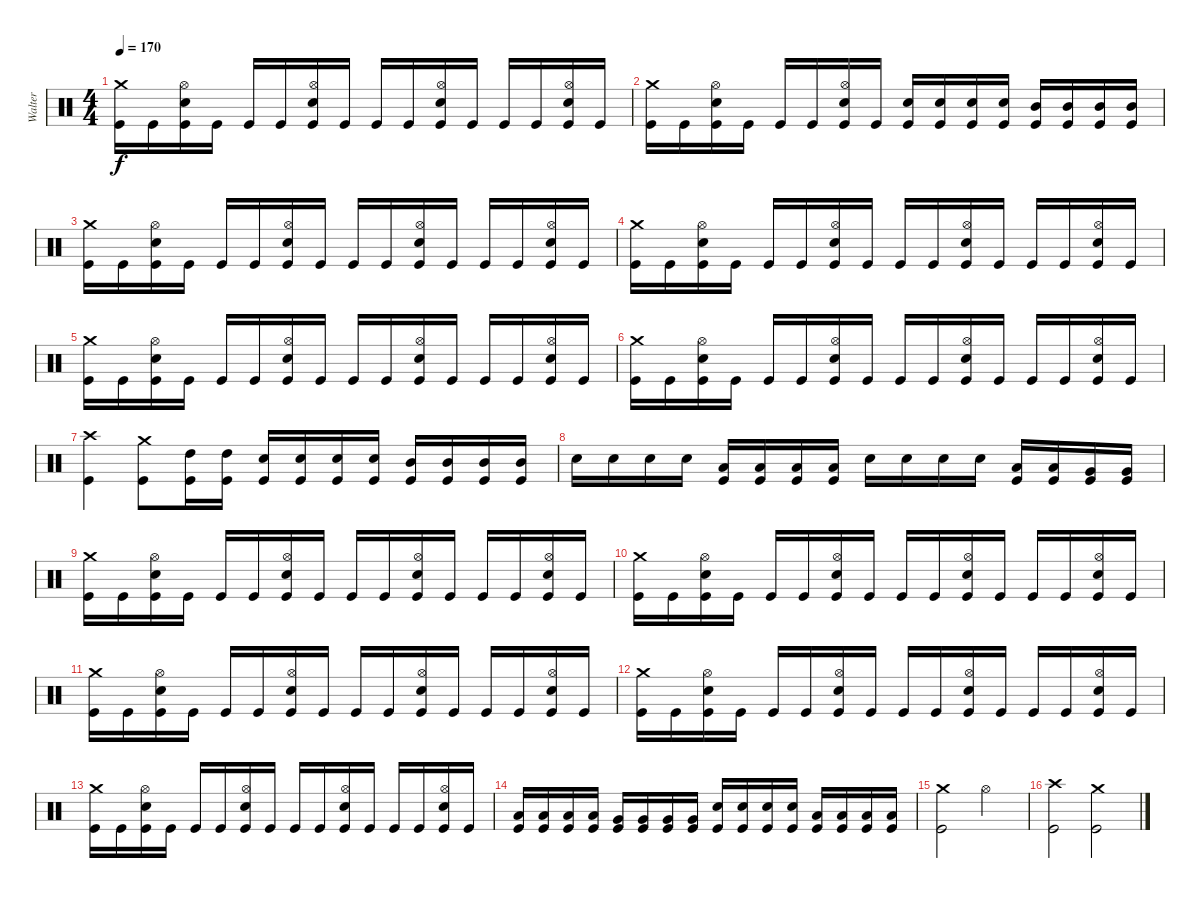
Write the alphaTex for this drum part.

\track ("Walter" "Walter") {instrument percussion}
\staff {score}
\articulation defaults
\ts (4 4)
\tempo 170
\clef neutral
\ks c
("Crash medium (hit)" "Kick (hit)").16{dy f} "Kick (hit)".16 ("Hi-Hat (open)" "Electric Snare (hit)" "Kick (hit)").16 "Kick (hit)".16 "Kick (hit)".16 "Kick (hit)".16 ("Hi-Hat (open)" "Electric Snare (hit)" "Kick (hit)").16 "Kick (hit)".16 "Kick (hit)".16 "Kick (hit)".16 ("Hi-Hat (open)" "Electric Snare (hit)" "Kick (hit)").16 "Kick (hit)".16 "Kick (hit)".16 "Kick (hit)".16 ("Hi-Hat (open)" "Electric Snare (hit)" "Kick (hit)").16 "Kick (hit)".16 |
("Crash medium (hit)" "Kick (hit)").16 "Kick (hit)".16 ("Hi-Hat (open)" "Electric Snare (hit)" "Kick (hit)").16 "Kick (hit)".16 "Kick (hit)".16 "Kick (hit)".16 ("Hi-Hat (open)" "Electric Snare (hit)" "Kick (hit)").16 "Kick (hit)".16 ("Electric Snare (hit)" "Kick (hit)").16 ("Electric Snare (hit)" "Kick (hit)").16 ("Electric Snare (hit)" "Kick (hit)").16 ("Electric Snare (hit)" "Kick (hit)").16 ("Mid Tom (hit)" "Kick (hit)").16 ("Mid Tom (hit)" "Kick (hit)").16 ("Mid Tom (hit)" "Kick (hit)").16 ("Mid Tom (hit)" "Kick (hit)").16 |
("Crash medium (hit)" "Kick (hit)").16 "Kick (hit)".16 ("Hi-Hat (open)" "Electric Snare (hit)" "Kick (hit)").16 "Kick (hit)".16 "Kick (hit)".16 "Kick (hit)".16 ("Hi-Hat (open)" "Electric Snare (hit)" "Kick (hit)").16 "Kick (hit)".16 "Kick (hit)".16 "Kick (hit)".16 ("Hi-Hat (open)" "Electric Snare (hit)" "Kick (hit)").16 "Kick (hit)".16 "Kick (hit)".16 "Kick (hit)".16 ("Hi-Hat (open)" "Electric Snare (hit)" "Kick (hit)").16 "Kick (hit)".16 |
("Crash medium (hit)" "Kick (hit)").16 "Kick (hit)".16 ("Hi-Hat (open)" "Electric Snare (hit)" "Kick (hit)").16 "Kick (hit)".16 "Kick (hit)".16 "Kick (hit)".16 ("Hi-Hat (open)" "Electric Snare (hit)" "Kick (hit)").16 "Kick (hit)".16 "Kick (hit)".16 "Kick (hit)".16 ("Hi-Hat (open)" "Electric Snare (hit)" "Kick (hit)").16 "Kick (hit)".16 "Kick (hit)".16 "Kick (hit)".16 ("Hi-Hat (open)" "Electric Snare (hit)" "Kick (hit)").16 "Kick (hit)".16 |
("Crash medium (hit)" "Kick (hit)").16 "Kick (hit)".16 ("Hi-Hat (open)" "Electric Snare (hit)" "Kick (hit)").16 "Kick (hit)".16 "Kick (hit)".16 "Kick (hit)".16 ("Hi-Hat (open)" "Electric Snare (hit)" "Kick (hit)").16 "Kick (hit)".16 "Kick (hit)".16 "Kick (hit)".16 ("Hi-Hat (open)" "Electric Snare (hit)" "Kick (hit)").16 "Kick (hit)".16 "Kick (hit)".16 "Kick (hit)".16 ("Hi-Hat (open)" "Electric Snare (hit)" "Kick (hit)").16 "Kick (hit)".16 |
("Crash medium (hit)" "Kick (hit)").16 "Kick (hit)".16 ("Hi-Hat (open)" "Electric Snare (hit)" "Kick (hit)").16 "Kick (hit)".16 "Kick (hit)".16 "Kick (hit)".16 ("Hi-Hat (open)" "Electric Snare (hit)" "Kick (hit)").16 "Kick (hit)".16 "Kick (hit)".16 "Kick (hit)".16 ("Hi-Hat (open)" "Electric Snare (hit)" "Kick (hit)").16 "Kick (hit)".16 "Kick (hit)".16 "Kick (hit)".16 ("Hi-Hat (open)" "Electric Snare (hit)" "Kick (hit)").16 "Kick (hit)".16 |
("Crash high (hit)" "Kick (hit)").4 ("Crash medium (hit)" "Kick (hit)").8 ("High Tom (hit)" "Kick (hit)").16 ("High Tom (hit)" "Kick (hit)").16 ("Electric Snare (hit)" "Kick (hit)").16 ("Electric Snare (hit)" "Kick (hit)").16 ("Electric Snare (hit)" "Kick (hit)").16 ("Electric Snare (hit)" "Kick (hit)").16 ("Mid Tom (hit)" "Kick (hit)").16 ("Mid Tom (hit)" "Kick (hit)").16 ("Mid Tom (hit)" "Kick (hit)").16 ("Mid Tom (hit)" "Kick (hit)").16 |
"Electric Snare (hit)".16 "Electric Snare (hit)".16 "Electric Snare (hit)".16 "Electric Snare (hit)".16 ("Low Tom (hit)" "Kick (hit)").16 ("Low Tom (hit)" "Kick (hit)").16 ("Low Tom (hit)" "Kick (hit)").16 ("Low Tom (hit)" "Kick (hit)").16 "Electric Snare (hit)".16 "Electric Snare (hit)".16 "Electric Snare (hit)".16 "Electric Snare (hit)".16 ("Low Tom (hit)" "Kick (hit)").16 ("Low Tom (hit)" "Kick (hit)").16 ("Very Low Tom (hit)" "Kick (hit)").16 ("Very Low Tom (hit)" "Kick (hit)").16 |
("Crash medium (hit)" "Kick (hit)").16 "Kick (hit)".16 ("Hi-Hat (open)" "Electric Snare (hit)" "Kick (hit)").16 "Kick (hit)".16 "Kick (hit)".16 "Kick (hit)".16 ("Hi-Hat (open)" "Electric Snare (hit)" "Kick (hit)").16 "Kick (hit)".16 "Kick (hit)".16 "Kick (hit)".16 ("Hi-Hat (open)" "Electric Snare (hit)" "Kick (hit)").16 "Kick (hit)".16 "Kick (hit)".16 "Kick (hit)".16 ("Hi-Hat (open)" "Electric Snare (hit)" "Kick (hit)").16 "Kick (hit)".16 |
("Crash medium (hit)" "Kick (hit)").16 "Kick (hit)".16 ("Hi-Hat (open)" "Electric Snare (hit)" "Kick (hit)").16 "Kick (hit)".16 "Kick (hit)".16 "Kick (hit)".16 ("Hi-Hat (open)" "Electric Snare (hit)" "Kick (hit)").16 "Kick (hit)".16 "Kick (hit)".16 "Kick (hit)".16 ("Hi-Hat (open)" "Electric Snare (hit)" "Kick (hit)").16 "Kick (hit)".16 "Kick (hit)".16 "Kick (hit)".16 ("Hi-Hat (open)" "Electric Snare (hit)" "Kick (hit)").16 "Kick (hit)".16 |
("Crash medium (hit)" "Kick (hit)").16 "Kick (hit)".16 ("Hi-Hat (open)" "Electric Snare (hit)" "Kick (hit)").16 "Kick (hit)".16 "Kick (hit)".16 "Kick (hit)".16 ("Hi-Hat (open)" "Electric Snare (hit)" "Kick (hit)").16 "Kick (hit)".16 "Kick (hit)".16 "Kick (hit)".16 ("Hi-Hat (open)" "Electric Snare (hit)" "Kick (hit)").16 "Kick (hit)".16 "Kick (hit)".16 "Kick (hit)".16 ("Hi-Hat (open)" "Electric Snare (hit)" "Kick (hit)").16 "Kick (hit)".16 |
("Crash medium (hit)" "Kick (hit)").16 "Kick (hit)".16 ("Hi-Hat (open)" "Electric Snare (hit)" "Kick (hit)").16 "Kick (hit)".16 "Kick (hit)".16 "Kick (hit)".16 ("Hi-Hat (open)" "Electric Snare (hit)" "Kick (hit)").16 "Kick (hit)".16 "Kick (hit)".16 "Kick (hit)".16 ("Hi-Hat (open)" "Electric Snare (hit)" "Kick (hit)").16 "Kick (hit)".16 "Kick (hit)".16 "Kick (hit)".16 ("Hi-Hat (open)" "Electric Snare (hit)" "Kick (hit)").16 "Kick (hit)".16 |
("Crash medium (hit)" "Kick (hit)").16 "Kick (hit)".16 ("Hi-Hat (open)" "Electric Snare (hit)" "Kick (hit)").16 "Kick (hit)".16 "Kick (hit)".16 "Kick (hit)".16 ("Hi-Hat (open)" "Electric Snare (hit)" "Kick (hit)").16 "Kick (hit)".16 "Kick (hit)".16 "Kick (hit)".16 ("Hi-Hat (open)" "Electric Snare (hit)" "Kick (hit)").16 "Kick (hit)".16 "Kick (hit)".16 "Kick (hit)".16 ("Hi-Hat (open)" "Electric Snare (hit)" "Kick (hit)").16 "Kick (hit)".16 |
("Low Tom (hit)" "Kick (hit)").16 ("Low Tom (hit)" "Kick (hit)").16 ("Low Tom (hit)" "Kick (hit)").16 ("Low Tom (hit)" "Kick (hit)").16 ("Very Low Tom (hit)" "Kick (hit)").16 ("Very Low Tom (hit)" "Kick (hit)").16 ("Very Low Tom (hit)" "Kick (hit)").16 ("Very Low Tom (hit)" "Kick (hit)").16 ("Electric Snare (hit)" "Kick (hit)").16 ("Electric Snare (hit)" "Kick (hit)").16 ("Electric Snare (hit)" "Kick (hit)").16 ("Electric Snare (hit)" "Kick (hit)").16 ("Low Tom (hit)" "Kick (hit)").16 ("Low Tom (hit)" "Kick (hit)").16 ("Low Tom (hit)" "Kick (hit)").16 ("Low Tom (hit)" "Kick (hit)").16 |
("Crash medium (hit)" "Kick (hit)").2 "Hi-Hat (open)".2 |
("Crash high (hit)" "Kick (hit)").2 ("Crash medium (hit)" "Kick (hit)").2
